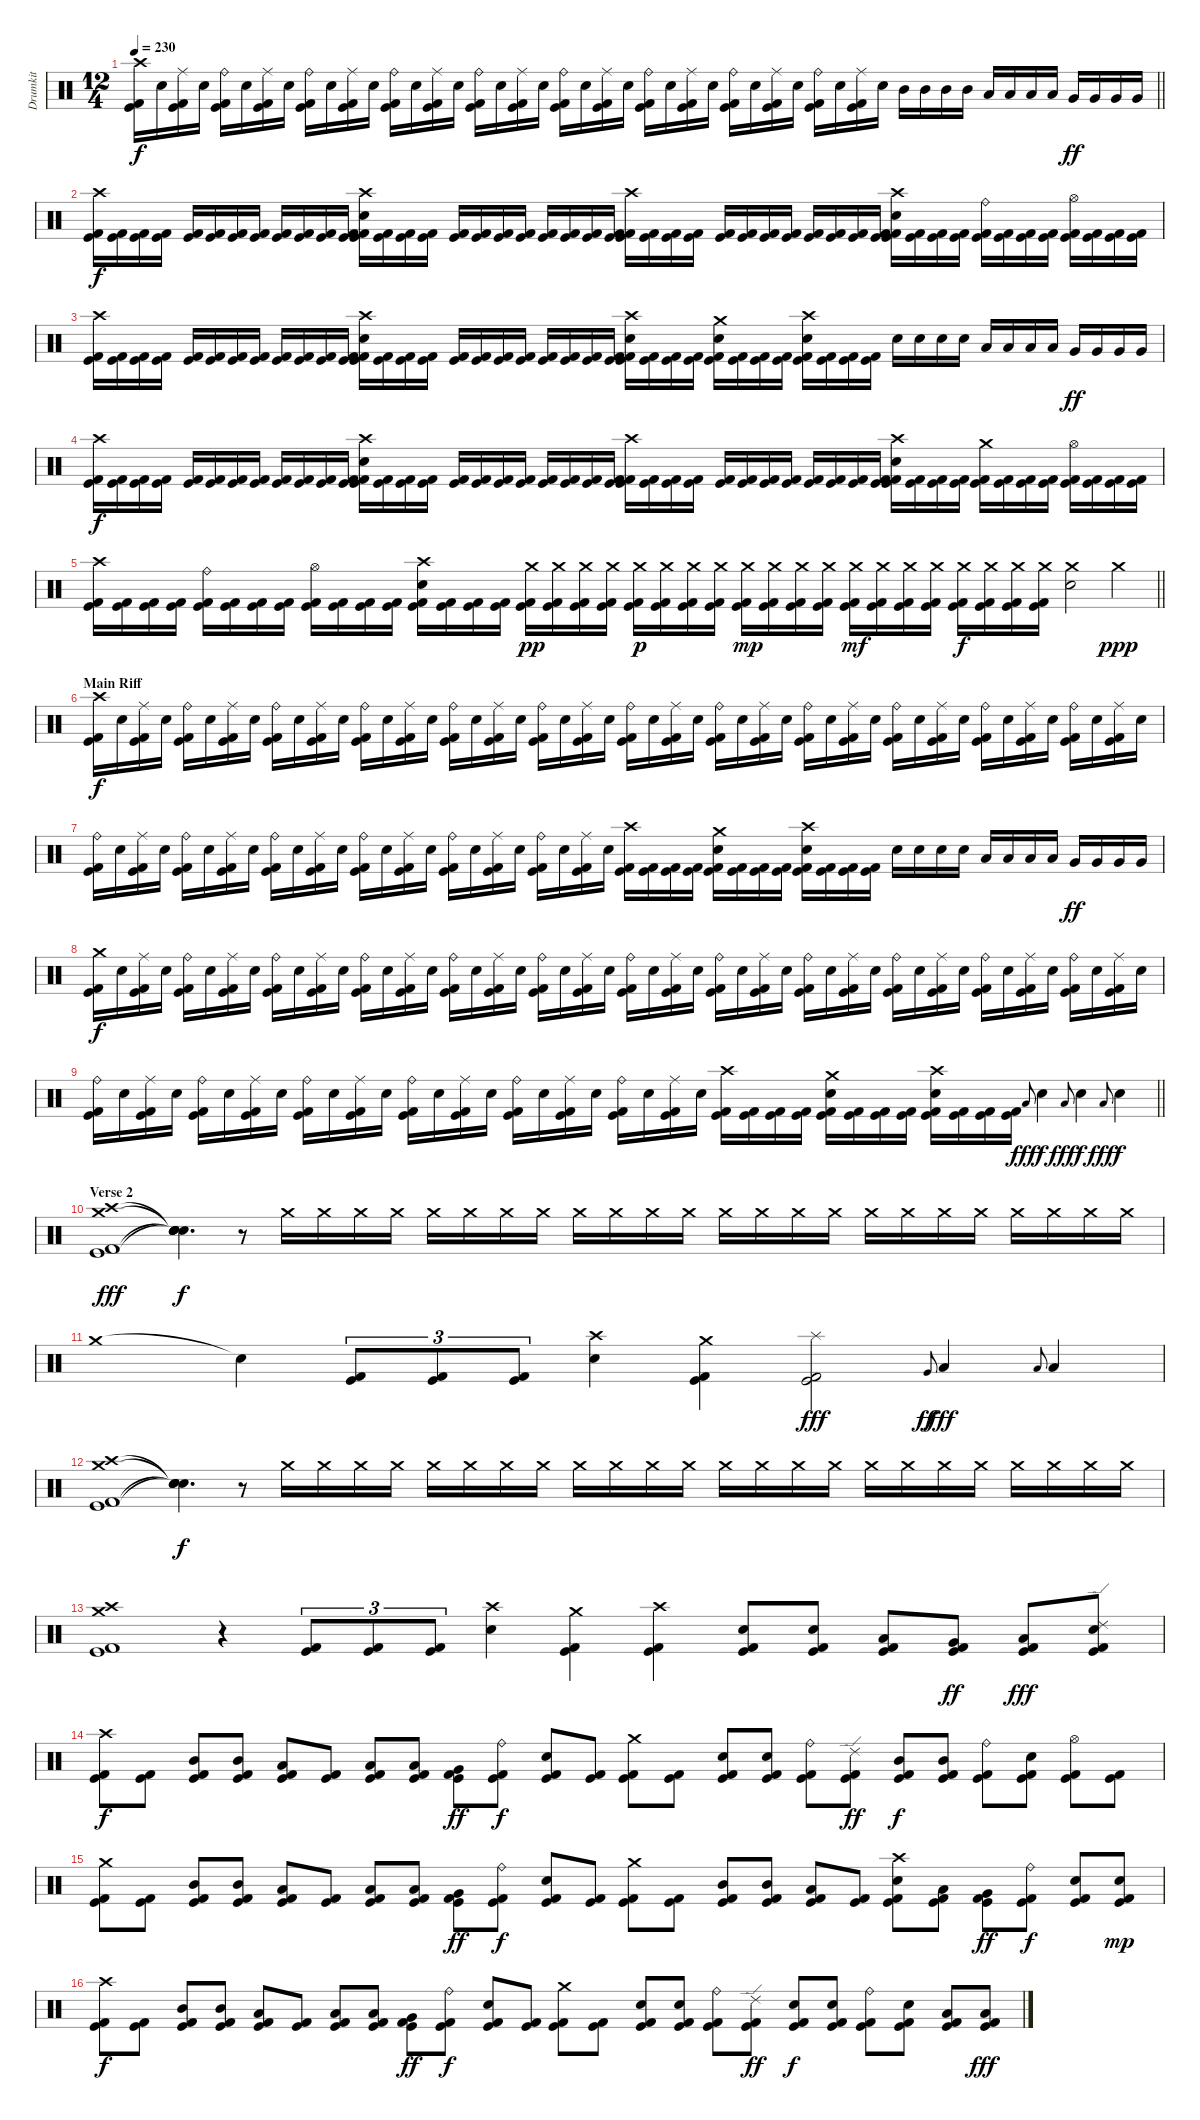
\track ("Drumkit" "Drumkit") {instrument percussion}
\staff {score}
\articulation defaults
\ts (12 4)
\tempo 230
\clef neutral
\barLineRight lightlight
\ks c
("Crash high (hit)" "Kick (hit)" "Kick (hit) 2").16{dy f} "Electric Snare (hit)".16 ("Ride (middle)" "Kick (hit)" "Kick (hit) 2").16 "Electric Snare (hit)".16 ("Ride (bell)" "Kick (hit)" "Kick (hit) 2").16 "Electric Snare (hit)".16 ("Ride (middle)" "Kick (hit)" "Kick (hit) 2").16 "Electric Snare (hit)".16 ("Ride (bell)" "Kick (hit)" "Kick (hit) 2").16 "Electric Snare (hit)".16 ("Ride (middle)" "Kick (hit)" "Kick (hit) 2").16 "Electric Snare (hit)".16 ("Ride (bell)" "Kick (hit)" "Kick (hit) 2").16 "Electric Snare (hit)".16 ("Ride (middle)" "Kick (hit)" "Kick (hit) 2").16 "Electric Snare (hit)".16 ("Ride (bell)" "Kick (hit)" "Kick (hit) 2").16 "Electric Snare (hit)".16 ("Ride (middle)" "Kick (hit)" "Kick (hit) 2").16 "Electric Snare (hit)".16 ("Ride (bell)" "Kick (hit)" "Kick (hit) 2").16 "Electric Snare (hit)".16 ("Ride (middle)" "Kick (hit)" "Kick (hit) 2").16 "Electric Snare (hit)".16 ("Ride (bell)" "Kick (hit)" "Kick (hit) 2").16 "Electric Snare (hit)".16 ("Ride (middle)" "Kick (hit)" "Kick (hit) 2").16 "Electric Snare (hit)".16 ("Ride (bell)" "Kick (hit)" "Kick (hit) 2").16 "Electric Snare (hit)".16 ("Ride (middle)" "Kick (hit)" "Kick (hit) 2").16 "Electric Snare (hit)".16 ("Ride (bell)" "Kick (hit)" "Kick (hit) 2").16 "Electric Snare (hit)".16 ("Ride (middle)" "Kick (hit)" "Kick (hit) 2").16 "Electric Snare (hit)".16 "Mid Tom (hit)".16 "Mid Tom (hit)".16 "Mid Tom (hit)".16 "Mid Tom (hit)".16 "Low Tom (hit)".16 "Low Tom (hit)".16 "Low Tom (hit)".16 "Low Tom (hit)".16 "Very Low Tom (hit)".16{dy ff} "Very Low Tom (hit)".16 "Very Low Tom (hit)".16 "Very Low Tom (hit)".16 |
("Crash high (hit)" "Kick (hit)" "Kick (hit) 2").16{dy f} ("Kick (hit)" "Kick (hit) 2").16 ("Kick (hit)" "Kick (hit) 2").16 ("Kick (hit)" "Kick (hit) 2").16 ("Kick (hit)" "Kick (hit) 2").16 ("Kick (hit)" "Kick (hit) 2").16 ("Kick (hit)" "Kick (hit) 2").16 ("Kick (hit)" "Kick (hit) 2").16 ("Kick (hit)" "Kick (hit) 2").16 ("Kick (hit)" "Kick (hit) 2").16 ("Kick (hit)" "Kick (hit) 2").16 ("Kick (hit)" "Kick (hit) 2").16 ("Crash high (hit)" "Electric Snare (hit)" "Kick (hit)" "Kick (hit) 2").16 ("Kick (hit)" "Kick (hit) 2").16 ("Kick (hit)" "Kick (hit) 2").16 ("Kick (hit)" "Kick (hit) 2").16 ("Kick (hit)" "Kick (hit) 2").16 ("Kick (hit)" "Kick (hit) 2").16 ("Kick (hit)" "Kick (hit) 2").16 ("Kick (hit)" "Kick (hit) 2").16 ("Kick (hit)" "Kick (hit) 2").16 ("Kick (hit)" "Kick (hit) 2").16 ("Kick (hit)" "Kick (hit) 2").16 ("Kick (hit)" "Kick (hit) 2").16 ("Crash high (hit)" "Kick (hit)" "Kick (hit) 2").16 ("Kick (hit)" "Kick (hit) 2").16 ("Kick (hit)" "Kick (hit) 2").16 ("Kick (hit)" "Kick (hit) 2").16 ("Kick (hit)" "Kick (hit) 2").16 ("Kick (hit)" "Kick (hit) 2").16 ("Kick (hit)" "Kick (hit) 2").16 ("Kick (hit)" "Kick (hit) 2").16 ("Kick (hit)" "Kick (hit) 2").16 ("Kick (hit)" "Kick (hit) 2").16 ("Kick (hit)" "Kick (hit) 2").16 ("Kick (hit)" "Kick (hit) 2").16 ("Crash high (hit)" "Electric Snare (hit)" "Kick (hit)" "Kick (hit) 2").16 ("Kick (hit)" "Kick (hit) 2").16 ("Kick (hit)" "Kick (hit) 2").16 ("Kick (hit)" "Kick (hit) 2").16 ("Ride (bell)" "Kick (hit)" "Kick (hit) 2").16 ("Kick (hit)" "Kick (hit) 2").16 ("Kick (hit)" "Kick (hit) 2").16 ("Kick (hit)" "Kick (hit) 2").16 ("Hi-Hat (open)" "Kick (hit)" "Kick (hit) 2").16 ("Kick (hit)" "Kick (hit) 2").16 ("Kick (hit)" "Kick (hit) 2").16 ("Kick (hit)" "Kick (hit) 2").16 |
("Crash high (hit)" "Kick (hit)" "Kick (hit) 2").16 ("Kick (hit)" "Kick (hit) 2").16 ("Kick (hit)" "Kick (hit) 2").16 ("Kick (hit)" "Kick (hit) 2").16 ("Kick (hit)" "Kick (hit) 2").16 ("Kick (hit)" "Kick (hit) 2").16 ("Kick (hit)" "Kick (hit) 2").16 ("Kick (hit)" "Kick (hit) 2").16 ("Kick (hit)" "Kick (hit) 2").16 ("Kick (hit)" "Kick (hit) 2").16 ("Kick (hit)" "Kick (hit) 2").16 ("Kick (hit)" "Kick (hit) 2").16 ("Crash high (hit)" "Electric Snare (hit)" "Kick (hit)" "Kick (hit) 2").16 ("Kick (hit)" "Kick (hit) 2").16 ("Kick (hit)" "Kick (hit) 2").16 ("Kick (hit)" "Kick (hit) 2").16 ("Kick (hit)" "Kick (hit) 2").16 ("Kick (hit)" "Kick (hit) 2").16 ("Kick (hit)" "Kick (hit) 2").16 ("Kick (hit)" "Kick (hit) 2").16 ("Kick (hit)" "Kick (hit) 2").16 ("Kick (hit)" "Kick (hit) 2").16 ("Kick (hit)" "Kick (hit) 2").16 ("Kick (hit)" "Kick (hit) 2").16 ("Crash high (hit)" "Electric Snare (hit)" "Kick (hit)" "Kick (hit) 2").16 ("Kick (hit)" "Kick (hit) 2").16 ("Kick (hit)" "Kick (hit) 2").16 ("Kick (hit)" "Kick (hit) 2").16 ("Crash medium (hit)" "Electric Snare (hit)" "Kick (hit)" "Kick (hit) 2").16 ("Kick (hit)" "Kick (hit) 2").16 ("Kick (hit)" "Kick (hit) 2").16 ("Kick (hit)" "Kick (hit) 2").16 ("Crash high (hit)" "Electric Snare (hit)" "Kick (hit)" "Kick (hit) 2").16 ("Kick (hit)" "Kick (hit) 2").16 ("Kick (hit)" "Kick (hit) 2").16 ("Kick (hit)" "Kick (hit) 2").16 "Electric Snare (hit)".16 "Electric Snare (hit)".16 "Electric Snare (hit)".16 "Electric Snare (hit)".16 "Low Tom (hit)".16 "Low Tom (hit)".16 "Low Tom (hit)".16 "Low Tom (hit)".16 "Very Low Tom (hit)".16{dy ff} "Very Low Tom (hit)".16 "Very Low Tom (hit)".16 "Very Low Tom (hit)".16 |
("Crash high (hit)" "Kick (hit)" "Kick (hit) 2").16{dy f} ("Kick (hit)" "Kick (hit) 2").16 ("Kick (hit)" "Kick (hit) 2").16 ("Kick (hit)" "Kick (hit) 2").16 ("Kick (hit)" "Kick (hit) 2").16 ("Kick (hit)" "Kick (hit) 2").16 ("Kick (hit)" "Kick (hit) 2").16 ("Kick (hit)" "Kick (hit) 2").16 ("Kick (hit)" "Kick (hit) 2").16 ("Kick (hit)" "Kick (hit) 2").16 ("Kick (hit)" "Kick (hit) 2").16 ("Kick (hit)" "Kick (hit) 2").16 ("Crash high (hit)" "Electric Snare (hit)" "Kick (hit)" "Kick (hit) 2").16 ("Kick (hit)" "Kick (hit) 2").16 ("Kick (hit)" "Kick (hit) 2").16 ("Kick (hit)" "Kick (hit) 2").16 ("Kick (hit)" "Kick (hit) 2").16 ("Kick (hit)" "Kick (hit) 2").16 ("Kick (hit)" "Kick (hit) 2").16 ("Kick (hit)" "Kick (hit) 2").16 ("Kick (hit)" "Kick (hit) 2").16 ("Kick (hit)" "Kick (hit) 2").16 ("Kick (hit)" "Kick (hit) 2").16 ("Kick (hit)" "Kick (hit) 2").16 ("Crash high (hit)" "Kick (hit)" "Kick (hit) 2").16 ("Kick (hit)" "Kick (hit) 2").16 ("Kick (hit)" "Kick (hit) 2").16 ("Kick (hit)" "Kick (hit) 2").16 ("Kick (hit)" "Kick (hit) 2").16 ("Kick (hit)" "Kick (hit) 2").16 ("Kick (hit)" "Kick (hit) 2").16 ("Kick (hit)" "Kick (hit) 2").16 ("Kick (hit)" "Kick (hit) 2").16 ("Kick (hit)" "Kick (hit) 2").16 ("Kick (hit)" "Kick (hit) 2").16 ("Kick (hit)" "Kick (hit) 2").16 ("Crash high (hit)" "Electric Snare (hit)" "Kick (hit)" "Kick (hit) 2").16 ("Kick (hit)" "Kick (hit) 2").16 ("Kick (hit)" "Kick (hit) 2").16 ("Kick (hit)" "Kick (hit) 2").16 ("Crash medium (hit)" "Kick (hit)" "Kick (hit) 2").16 ("Kick (hit)" "Kick (hit) 2").16 ("Kick (hit)" "Kick (hit) 2").16 ("Kick (hit)" "Kick (hit) 2").16 ("Hi-Hat (open)" "Kick (hit)" "Kick (hit) 2").16 ("Kick (hit)" "Kick (hit) 2").16 ("Kick (hit)" "Kick (hit) 2").16 ("Kick (hit)" "Kick (hit) 2").16 |
\barLineRight lightlight
("Crash high (hit)" "Kick (hit)" "Kick (hit) 2").16 ("Kick (hit)" "Kick (hit) 2").16 ("Kick (hit)" "Kick (hit) 2").16 ("Kick (hit)" "Kick (hit) 2").16 ("Ride (bell)" "Kick (hit)" "Kick (hit) 2").16 ("Kick (hit)" "Kick (hit) 2").16 ("Kick (hit)" "Kick (hit) 2").16 ("Kick (hit)" "Kick (hit) 2").16 ("Hi-Hat (open)" "Kick (hit)" "Kick (hit) 2").16 ("Kick (hit)" "Kick (hit) 2").16 ("Kick (hit)" "Kick (hit) 2").16 ("Kick (hit)" "Kick (hit) 2").16 ("Crash high (hit)" "Electric Snare (hit)" "Kick (hit)" "Kick (hit) 2").16 ("Kick (hit)" "Kick (hit) 2").16 ("Kick (hit)" "Kick (hit) 2").16 ("Kick (hit)" "Kick (hit) 2").16 ("Crash medium (hit)" "Kick (hit)" "Kick (hit) 2").16{dy pp} ("Crash medium (hit)" "Kick (hit)" "Kick (hit) 2").16 ("Crash medium (hit)" "Kick (hit)" "Kick (hit) 2").16 ("Crash medium (hit)" "Kick (hit)" "Kick (hit) 2").16 ("Crash medium (hit)" "Kick (hit)" "Kick (hit) 2").16{dy p} ("Crash medium (hit)" "Kick (hit)" "Kick (hit) 2").16 ("Crash medium (hit)" "Kick (hit)" "Kick (hit) 2").16 ("Crash medium (hit)" "Kick (hit)" "Kick (hit) 2").16 ("Crash medium (hit)" "Kick (hit)" "Kick (hit) 2").16{dy mp} ("Crash medium (hit)" "Kick (hit)" "Kick (hit) 2").16 ("Crash medium (hit)" "Kick (hit)" "Kick (hit) 2").16 ("Crash medium (hit)" "Kick (hit)" "Kick (hit) 2").16 ("Crash medium (hit)" "Kick (hit)" "Kick (hit) 2").16{dy mf} ("Crash medium (hit)" "Kick (hit)" "Kick (hit) 2").16 ("Crash medium (hit)" "Kick (hit)" "Kick (hit) 2").16 ("Crash medium (hit)" "Kick (hit)" "Kick (hit) 2").16 ("Crash medium (hit)" "Kick (hit)" "Kick (hit) 2").16{dy f} ("Crash medium (hit)" "Kick (hit)" "Kick (hit) 2").16 ("Crash medium (hit)" "Kick (hit)" "Kick (hit) 2").16 ("Crash medium (hit)" "Kick (hit)" "Kick (hit) 2").16 ("Crash medium (hit)" "Electric Snare (hit)").2 "Crash medium (hit)".4{dy ppp} |
\section ("" "Main Riff")
("Crash high (hit)" "Kick (hit)" "Kick (hit) 2").16{dy f} "Electric Snare (hit)".16 ("Ride (middle)" "Kick (hit)" "Kick (hit) 2").16 "Electric Snare (hit)".16 ("Ride (bell)" "Kick (hit)" "Kick (hit) 2").16 "Electric Snare (hit)".16 ("Ride (middle)" "Kick (hit)" "Kick (hit) 2").16 "Electric Snare (hit)".16 ("Ride (bell)" "Kick (hit)" "Kick (hit) 2").16 "Electric Snare (hit)".16 ("Ride (middle)" "Kick (hit)" "Kick (hit) 2").16 "Electric Snare (hit)".16 ("Ride (bell)" "Kick (hit)" "Kick (hit) 2").16 "Electric Snare (hit)".16 ("Ride (middle)" "Kick (hit)" "Kick (hit) 2").16 "Electric Snare (hit)".16 ("Ride (bell)" "Kick (hit)" "Kick (hit) 2").16 "Electric Snare (hit)".16 ("Ride (middle)" "Kick (hit)" "Kick (hit) 2").16 "Electric Snare (hit)".16 ("Ride (bell)" "Kick (hit)" "Kick (hit) 2").16 "Electric Snare (hit)".16 ("Ride (middle)" "Kick (hit)" "Kick (hit) 2").16 "Electric Snare (hit)".16 ("Ride (bell)" "Kick (hit)" "Kick (hit) 2").16 "Electric Snare (hit)".16 ("Ride (middle)" "Kick (hit)" "Kick (hit) 2").16 "Electric Snare (hit)".16 ("Ride (bell)" "Kick (hit)" "Kick (hit) 2").16 "Electric Snare (hit)".16 ("Ride (middle)" "Kick (hit)" "Kick (hit) 2").16 "Electric Snare (hit)".16 ("Ride (bell)" "Kick (hit)" "Kick (hit) 2").16 "Electric Snare (hit)".16 ("Ride (middle)" "Kick (hit)" "Kick (hit) 2").16 "Electric Snare (hit)".16 ("Ride (bell)" "Kick (hit)" "Kick (hit) 2").16 "Electric Snare (hit)".16 ("Ride (middle)" "Kick (hit)" "Kick (hit) 2").16 "Electric Snare (hit)".16 ("Ride (bell)" "Kick (hit)" "Kick (hit) 2").16 "Electric Snare (hit)".16 ("Ride (middle)" "Kick (hit)" "Kick (hit) 2").16 "Electric Snare (hit)".16 ("Ride (bell)" "Kick (hit)" "Kick (hit) 2").16 "Electric Snare (hit)".16 ("Ride (middle)" "Kick (hit)" "Kick (hit) 2").16 "Electric Snare (hit)".16 |
("Ride (bell)" "Kick (hit)" "Kick (hit) 2").16 "Electric Snare (hit)".16 ("Ride (middle)" "Kick (hit)" "Kick (hit) 2").16 "Electric Snare (hit)".16 ("Ride (bell)" "Kick (hit)" "Kick (hit) 2").16 "Electric Snare (hit)".16 ("Ride (middle)" "Kick (hit)" "Kick (hit) 2").16 "Electric Snare (hit)".16 ("Ride (bell)" "Kick (hit)" "Kick (hit) 2").16 "Electric Snare (hit)".16 ("Ride (middle)" "Kick (hit)" "Kick (hit) 2").16 "Electric Snare (hit)".16 ("Ride (bell)" "Kick (hit)" "Kick (hit) 2").16 "Electric Snare (hit)".16 ("Ride (middle)" "Kick (hit)" "Kick (hit) 2").16 "Electric Snare (hit)".16 ("Ride (bell)" "Kick (hit)" "Kick (hit) 2").16 "Electric Snare (hit)".16 ("Ride (middle)" "Kick (hit)" "Kick (hit) 2").16 "Electric Snare (hit)".16 ("Ride (bell)" "Kick (hit)" "Kick (hit) 2").16 "Electric Snare (hit)".16 ("Ride (middle)" "Kick (hit)" "Kick (hit) 2").16 "Electric Snare (hit)".16 ("Crash high (hit)" "Kick (hit)" "Kick (hit) 2").16 ("Kick (hit)" "Kick (hit) 2").16 ("Kick (hit)" "Kick (hit) 2").16 ("Kick (hit)" "Kick (hit) 2").16 ("Crash medium (hit)" "Electric Snare (hit)" "Kick (hit)" "Kick (hit) 2").16 ("Kick (hit)" "Kick (hit) 2").16 ("Kick (hit)" "Kick (hit) 2").16 ("Kick (hit)" "Kick (hit) 2").16 ("Crash high (hit)" "Electric Snare (hit)" "Kick (hit)" "Kick (hit) 2").16 ("Kick (hit)" "Kick (hit) 2").16 ("Kick (hit)" "Kick (hit) 2").16 ("Kick (hit)" "Kick (hit) 2").16 "Electric Snare (hit)".16 "Electric Snare (hit)".16 "Electric Snare (hit)".16 "Electric Snare (hit)".16 "Low Tom (hit)".16 "Low Tom (hit)".16 "Low Tom (hit)".16 "Low Tom (hit)".16 "Very Low Tom (hit)".16{dy ff} "Very Low Tom (hit)".16 "Very Low Tom (hit)".16 "Very Low Tom (hit)".16 |
("Crash medium (hit)" "Kick (hit)" "Kick (hit) 2").16{dy f} "Electric Snare (hit)".16 ("Ride (middle)" "Kick (hit)" "Kick (hit) 2").16 "Electric Snare (hit)".16 ("Ride (bell)" "Kick (hit)" "Kick (hit) 2").16 "Electric Snare (hit)".16 ("Ride (middle)" "Kick (hit)" "Kick (hit) 2").16 "Electric Snare (hit)".16 ("Ride (bell)" "Kick (hit)" "Kick (hit) 2").16 "Electric Snare (hit)".16 ("Ride (middle)" "Kick (hit)" "Kick (hit) 2").16 "Electric Snare (hit)".16 ("Ride (bell)" "Kick (hit)" "Kick (hit) 2").16 "Electric Snare (hit)".16 ("Ride (middle)" "Kick (hit)" "Kick (hit) 2").16 "Electric Snare (hit)".16 ("Ride (bell)" "Kick (hit)" "Kick (hit) 2").16 "Electric Snare (hit)".16 ("Ride (middle)" "Kick (hit)" "Kick (hit) 2").16 "Electric Snare (hit)".16 ("Ride (bell)" "Kick (hit)" "Kick (hit) 2").16 "Electric Snare (hit)".16 ("Ride (middle)" "Kick (hit)" "Kick (hit) 2").16 "Electric Snare (hit)".16 ("Ride (bell)" "Kick (hit)" "Kick (hit) 2").16 "Electric Snare (hit)".16 ("Ride (middle)" "Kick (hit)" "Kick (hit) 2").16 "Electric Snare (hit)".16 ("Ride (bell)" "Kick (hit)" "Kick (hit) 2").16 "Electric Snare (hit)".16 ("Ride (middle)" "Kick (hit)" "Kick (hit) 2").16 "Electric Snare (hit)".16 ("Ride (bell)" "Kick (hit)" "Kick (hit) 2").16 "Electric Snare (hit)".16 ("Ride (middle)" "Kick (hit)" "Kick (hit) 2").16 "Electric Snare (hit)".16 ("Ride (bell)" "Kick (hit)" "Kick (hit) 2").16 "Electric Snare (hit)".16 ("Ride (middle)" "Kick (hit)" "Kick (hit) 2").16 "Electric Snare (hit)".16 ("Ride (bell)" "Kick (hit)" "Kick (hit) 2").16 "Electric Snare (hit)".16 ("Ride (middle)" "Kick (hit)" "Kick (hit) 2").16 "Electric Snare (hit)".16 ("Ride (bell)" "Kick (hit)" "Kick (hit) 2").16 "Electric Snare (hit)".16 ("Ride (middle)" "Kick (hit)" "Kick (hit) 2").16 "Electric Snare (hit)".16 |
\barLineRight lightlight
("Ride (bell)" "Kick (hit)" "Kick (hit) 2").16 "Electric Snare (hit)".16 ("Ride (middle)" "Kick (hit)" "Kick (hit) 2").16 "Electric Snare (hit)".16 ("Ride (bell)" "Kick (hit)" "Kick (hit) 2").16 "Electric Snare (hit)".16 ("Ride (middle)" "Kick (hit)" "Kick (hit) 2").16 "Electric Snare (hit)".16 ("Ride (bell)" "Kick (hit)" "Kick (hit) 2").16 "Electric Snare (hit)".16 ("Ride (middle)" "Kick (hit)" "Kick (hit) 2").16 "Electric Snare (hit)".16 ("Ride (bell)" "Kick (hit)" "Kick (hit) 2").16 "Electric Snare (hit)".16 ("Ride (middle)" "Kick (hit)" "Kick (hit) 2").16 "Electric Snare (hit)".16 ("Ride (bell)" "Kick (hit)" "Kick (hit) 2").16 "Electric Snare (hit)".16 ("Ride (middle)" "Kick (hit)" "Kick (hit) 2").16 "Electric Snare (hit)".16 ("Ride (bell)" "Kick (hit)" "Kick (hit) 2").16 "Electric Snare (hit)".16 ("Ride (middle)" "Kick (hit)" "Kick (hit) 2").16 "Electric Snare (hit)".16 ("Crash high (hit)" "Kick (hit)" "Kick (hit) 2").16 ("Kick (hit)" "Kick (hit) 2").16 ("Kick (hit)" "Kick (hit) 2").16 ("Kick (hit)" "Kick (hit) 2").16 ("Crash medium (hit)" "Electric Snare (hit)" "Kick (hit)" "Kick (hit) 2").16 ("Kick (hit)" "Kick (hit) 2").16 ("Kick (hit)" "Kick (hit) 2").16 ("Kick (hit)" "Kick (hit) 2").16 ("Crash high (hit)" "Electric Snare (hit)" "Kick (hit)" "Kick (hit) 2").16 ("Kick (hit)" "Kick (hit) 2").16 ("Kick (hit)" "Kick (hit) 2").16 ("Kick (hit)" "Kick (hit) 2").16 "Low Floor Tom (hit)".8{gr onbeat dy fff} "Electric Snare (hit)".4{dy f} "Low Floor Tom (hit)".8{gr onbeat dy fff} "Electric Snare (hit)".4{dy f} "Low Floor Tom (hit)".8{gr onbeat dy fff} "Electric Snare (hit)".4{dy f} |
\section ("" "Verse 2")
("Crash high (hit)" "Crash medium (hit)" "Kick (hit)" "Kick (hit) 2").1{dy fff} ("Snare (hit)"{t} "Snare (hit)"{t} "Snare (hit)"{t} "Snare (hit)"{t}).4{d dy f} r.8{volume 0} "Crash medium (hit)".16{volume 14} "Crash medium (hit)".16 "Crash medium (hit)".16 "Crash medium (hit)".16 "Crash medium (hit)".16 "Crash medium (hit)".16 "Crash medium (hit)".16 "Crash medium (hit)".16 "Crash medium (hit)".16 "Crash medium (hit)".16 "Crash medium (hit)".16 "Crash medium (hit)".16 "Crash medium (hit)".16 "Crash medium (hit)".16 "Crash medium (hit)".16 "Crash medium (hit)".16 "Crash medium (hit)".16 "Crash medium (hit)".16 "Crash medium (hit)".16 "Crash medium (hit)".16 "Crash medium (hit)".16 "Crash medium (hit)".16 "Crash medium (hit)".16 "Crash medium (hit)".16 |
"Crash medium (hit)".1 "Snare (hit)"{t}.4 ("Kick (hit)" "Kick (hit) 2").8{tu (3 2)} ("Kick (hit)" "Kick (hit) 2").8{tu (3 2)} ("Kick (hit)" "Kick (hit) 2").8{tu (3 2)} ("Crash high (hit)" "Electric Snare (hit)").4 ("Crash medium (hit)" "Kick (hit)" "Kick (hit) 2").4 ("Splash (hit)" "Kick (hit)" "Kick (hit) 2").2{dy fff} "Very Low Tom (hit)".8{gr onbeat dy ff} "Low Floor Tom (hit)".4{dy fff} "Low Floor Tom (hit)".8{gr onbeat} "Low Floor Tom (hit)".4 |
("Crash high (hit)" "Crash medium (hit)" "Kick (hit)" "Kick (hit) 2").1 ("Snare (hit)"{t} "Snare (hit)"{t} "Snare (hit)"{t} "Snare (hit)"{t}).4{d dy f} r.8{volume 0} "Crash medium (hit)".16{volume 14} "Crash medium (hit)".16 "Crash medium (hit)".16 "Crash medium (hit)".16 "Crash medium (hit)".16 "Crash medium (hit)".16 "Crash medium (hit)".16 "Crash medium (hit)".16 "Crash medium (hit)".16 "Crash medium (hit)".16 "Crash medium (hit)".16 "Crash medium (hit)".16 "Crash medium (hit)".16 "Crash medium (hit)".16 "Crash medium (hit)".16 "Crash medium (hit)".16 "Crash medium (hit)".16 "Crash medium (hit)".16 "Crash medium (hit)".16 "Crash medium (hit)".16 "Crash medium (hit)".16 "Crash medium (hit)".16 "Crash medium (hit)".16 "Crash medium (hit)".16 |
("Crash high (hit)" "Crash medium (hit)" "Kick (hit)" "Kick (hit) 2").1 r.4 ("Kick (hit)" "Kick (hit) 2").8{tu (3 2)} ("Kick (hit)" "Kick (hit) 2").8{tu (3 2)} ("Kick (hit)" "Kick (hit) 2").8{tu (3 2)} ("Crash high (hit)" "Electric Snare (hit)").4 ("Crash medium (hit)" "Kick (hit)" "Kick (hit) 2").4 ("Crash high (hit)" "Kick (hit)" "Kick (hit) 2").4 ("Electric Snare (hit)" "Kick (hit)" "Kick (hit) 2").8 ("Electric Snare (hit)" "Kick (hit)" "Kick (hit) 2").8 ("Low Tom (hit)" "Kick (hit)" "Kick (hit) 2").8 ("Very Low Tom (hit)" "Kick (hit)" "Kick (hit) 2").8{dy ff} ("Low Floor Tom (hit)" "Kick (hit)" "Kick (hit) 2").8{dy fff} ("Ride (edge) 2" "Electric Snare (hit)" "Kick (hit)" "Kick (hit) 2").8 |
("Crash high (hit)" "Kick (hit)" "Kick (hit) 2").8{dy f} ("Kick (hit)" "Kick (hit) 2").8 ("Mid Tom (hit)" "Kick (hit)" "Kick (hit) 2").8 ("Mid Tom (hit)" "Kick (hit)" "Kick (hit) 2").8 ("Low Tom (hit)" "Kick (hit)" "Kick (hit) 2").8 ("Kick (hit)" "Kick (hit) 2").8 ("Low Tom (hit)" "Kick (hit)" "Kick (hit) 2").8 ("Low Tom (hit)" "Kick (hit)" "Kick (hit) 2").8 ("Very Low Tom (hit)" "Kick (hit)" "Kick (hit) 2").8{dy ff} ("Ride (bell)" "Kick (hit)" "Kick (hit) 2").8{dy f} ("Electric Snare (hit)" "Kick (hit)" "Kick (hit) 2").8 ("Kick (hit)" "Kick (hit) 2").8 ("Crash medium (hit)" "Kick (hit)" "Kick (hit) 2").8 ("Kick (hit)" "Kick (hit) 2").8 ("Electric Snare (hit)" "Kick (hit)" "Kick (hit) 2").8 ("Electric Snare (hit)" "Kick (hit)" "Kick (hit) 2").8 ("Ride (bell)" "Kick (hit)" "Kick (hit) 2").8 ("Ride (edge) 2" "Kick (hit)" "Kick (hit) 2").8{dy ff} ("Mid Tom (hit)" "Kick (hit)" "Kick (hit) 2").8{dy f} ("Mid Tom (hit)" "Kick (hit)" "Kick (hit) 2").8 ("Ride (bell)" "Kick (hit)" "Kick (hit) 2").8 ("Electric Snare (hit)" "Kick (hit)" "Kick (hit) 2").8 ("Hi-Hat (open)" "Kick (hit)" "Kick (hit) 2").8 ("Kick (hit)" "Kick (hit) 2").8 |
("Crash medium (hit)" "Kick (hit)" "Kick (hit) 2").8 ("Kick (hit)" "Kick (hit) 2").8 ("Mid Tom (hit)" "Kick (hit)" "Kick (hit) 2").8 ("Mid Tom (hit)" "Kick (hit)" "Kick (hit) 2").8 ("Low Tom (hit)" "Kick (hit)" "Kick (hit) 2").8 ("Kick (hit)" "Kick (hit) 2").8 ("Low Tom (hit)" "Kick (hit)" "Kick (hit) 2").8 ("Low Tom (hit)" "Kick (hit)" "Kick (hit) 2").8 ("Very Low Tom (hit)" "Kick (hit)" "Kick (hit) 2").8{dy ff} ("Ride (bell)" "Kick (hit)" "Kick (hit) 2").8{dy f} ("Electric Snare (hit)" "Kick (hit)" "Kick (hit) 2").8 ("Kick (hit)" "Kick (hit) 2").8 ("Crash medium (hit)" "Kick (hit)" "Kick (hit) 2").8 ("Kick (hit)" "Kick (hit) 2").8 ("Mid Tom (hit)" "Kick (hit)" "Kick (hit) 2").8 ("Mid Tom (hit)" "Kick (hit)" "Kick (hit) 2").8 ("Low Tom (hit)" "Kick (hit)" "Kick (hit) 2").8 ("Kick (hit)" "Kick (hit) 2").8 ("Crash high (hit)" "Electric Snare (hit)" "Kick (hit)" "Kick (hit) 2").8 ("Low Tom (hit)" "Kick (hit)" "Kick (hit) 2").8 ("Very Low Tom (hit)" "Kick (hit)" "Kick (hit) 2").8{dy ff} ("Ride (bell)" "Kick (hit)" "Kick (hit) 2").8{dy f} ("Electric Snare (hit)" "Kick (hit)" "Kick (hit) 2").8 ("Electric Snare (hit)" "Kick (hit)" "Kick (hit) 2").8{dy mp} |
("Crash high (hit)" "Kick (hit)" "Kick (hit) 2").8{dy f} ("Kick (hit)" "Kick (hit) 2").8 ("Mid Tom (hit)" "Kick (hit)" "Kick (hit) 2").8 ("Mid Tom (hit)" "Kick (hit)" "Kick (hit) 2").8 ("Low Tom (hit)" "Kick (hit)" "Kick (hit) 2").8 ("Kick (hit)" "Kick (hit) 2").8 ("Low Tom (hit)" "Kick (hit)" "Kick (hit) 2").8 ("Low Tom (hit)" "Kick (hit)" "Kick (hit) 2").8 ("Very Low Tom (hit)" "Kick (hit)" "Kick (hit) 2").8{dy ff} ("Ride (bell)" "Kick (hit)" "Kick (hit) 2").8{dy f} ("Electric Snare (hit)" "Kick (hit)" "Kick (hit) 2").8 ("Kick (hit)" "Kick (hit) 2").8 ("Crash medium (hit)" "Kick (hit)" "Kick (hit) 2").8 ("Kick (hit)" "Kick (hit) 2").8 ("Electric Snare (hit)" "Kick (hit)" "Kick (hit) 2").8 ("Electric Snare (hit)" "Kick (hit)" "Kick (hit) 2").8 ("Ride (bell)" "Kick (hit)" "Kick (hit) 2").8 ("Ride (edge) 2" "Kick (hit)" "Kick (hit) 2").8{dy ff} ("Electric Snare (hit)" "Kick (hit)" "Kick (hit) 2").8{dy f} ("Electric Snare (hit)" "Kick (hit)" "Kick (hit) 2").8 ("Ride (bell)" "Kick (hit)" "Kick (hit) 2").8 ("Electric Snare (hit)" "Kick (hit)" "Kick (hit) 2").8 ("Low Tom (hit)" "Kick (hit)" "Kick (hit) 2").8 ("Low Floor Tom (hit)" "Kick (hit)" "Kick (hit) 2").8{dy fff}
